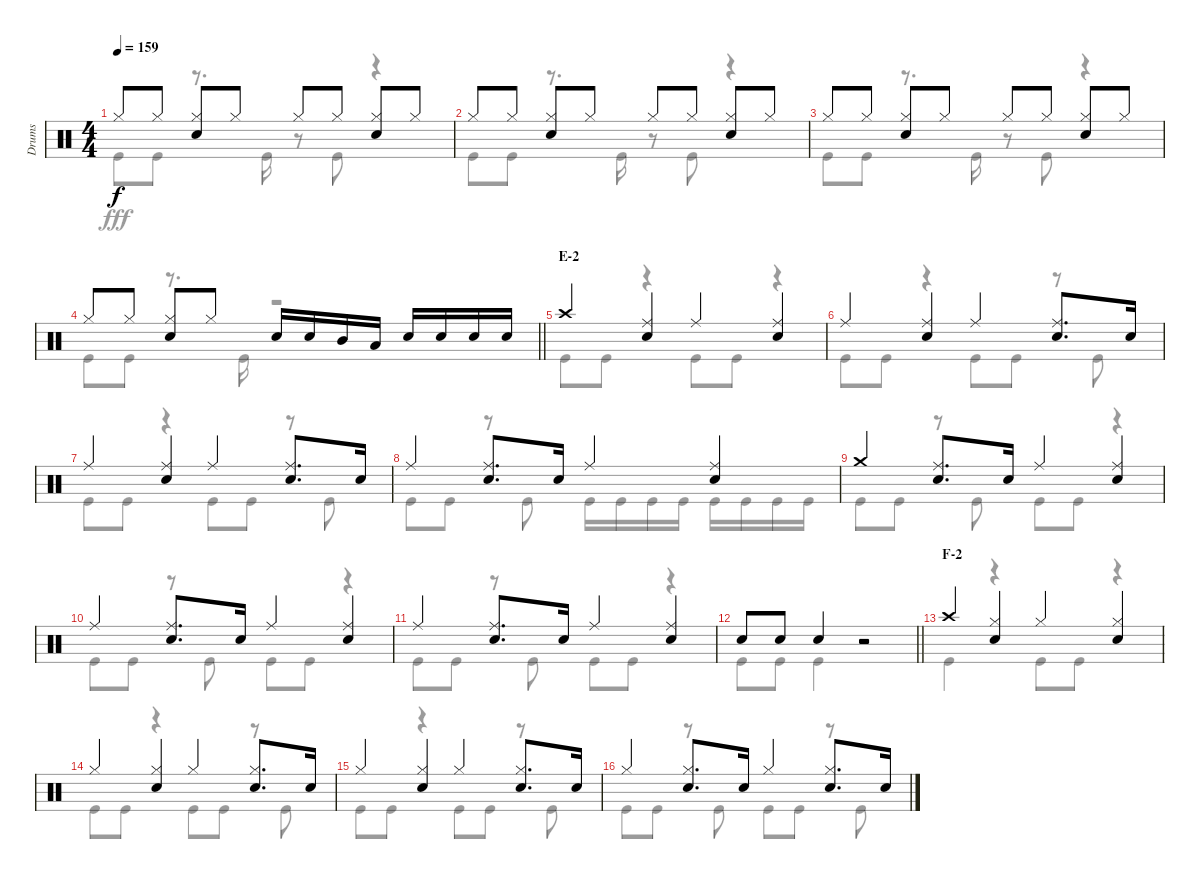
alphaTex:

\track ("Drums" "Drums") {instrument percussion}
\staff {score}
\articulation defaults
\voice
\ts (4 4)
\tempo 159
\clef neutral
\ks c "Hi-Hat (closed)".8{dy f} "Hi-Hat (closed)".8
("Hi-Hat (closed)" "Snare (hit) 2").8 "Hi-Hat (closed)".8 "Hi-Hat (closed)".8 "Hi-Hat (closed)".8 ("Hi-Hat (closed)" "Snare (hit) 2").8 "Hi-Hat (closed)".8 |
"Hi-Hat (closed)".8 "Hi-Hat (closed)".8 ("Hi-Hat (closed)" "Snare (hit) 2").8 "Hi-Hat (closed)".8 "Hi-Hat (closed)".8 "Hi-Hat (closed)".8 ("Hi-Hat (closed)" "Snare (hit) 2").8 "Hi-Hat (closed)".8 |
"Hi-Hat (closed)".8 "Hi-Hat (closed)".8 ("Hi-Hat (closed)" "Snare (hit) 2").8 "Hi-Hat (closed)".8 "Hi-Hat (closed)".8 "Hi-Hat (closed)".8 ("Hi-Hat (closed)" "Snare (hit) 2").8 "Hi-Hat (closed)".8 |
\barLineRight lightlight "Hi-Hat (closed)".8 "Hi-Hat (closed)".8
("Hi-Hat (closed)" "Snare (hit) 2").8 "Hi-Hat (closed)".8 "Snare (hit) 2".16 "Snare (hit) 2".16 "Mid Tom (hit)".16 "Low Tom (hit)".16 "Snare (hit) 2".16 "Snare (hit) 2".16 "Snare (hit) 2".16 "Snare (hit) 2".16 |
\section ("" "E-2")
"Crash high (hit)".4 ("Ride (middle)" "Snare (hit) 2").4 "Ride (middle)".4 ("Ride (middle)" "Snare (hit) 2").4 |
"Ride (middle)".4 ("Ride (middle)" "Snare (hit) 2").4 "Ride (middle)".4 ("Ride (middle)" "Snare (hit) 2").8{d} "Snare (hit) 2".16 |
"Ride (middle)".4 ("Ride (middle)" "Snare (hit) 2").4 "Ride (middle)".4 ("Ride (middle)" "Snare (hit) 2").8{d} "Snare (hit) 2".16 |
"Ride (middle)".4 ("Ride (middle)" "Snare (hit) 2").8{d} "Snare (hit) 2".16 "Ride (middle)".4 ("Ride (middle)" "Snare (hit) 2").4 |
"Crash medium (hit)".4 ("Ride (middle)" "Snare (hit) 2").8{d} "Snare (hit) 2".16 "Ride (middle)".4 ("Ride (middle)" "Snare (hit) 2").4 |
"Ride (middle)".4 ("Ride (middle)" "Snare (hit) 2").8{d} "Snare (hit) 2".16 "Ride (middle)".4 ("Ride (middle)" "Snare (hit) 2").4 |
"Ride (middle)".4 ("Ride (middle)" "Snare (hit) 2").8{d} "Snare (hit) 2".16 "Ride (middle)".4 ("Ride (middle)" "Snare (hit) 2").4 |
\barLineRight lightlight "Snare (hit) 2".8 "Snare (hit) 2".8 "Snare (hit) 2".4
r.2 |
\section ("" "F-2")
"Crash high (hit)".4 ("Hi-Hat (closed)" "Snare (hit) 2").4 "Hi-Hat (closed)".4 ("Hi-Hat (closed)" "Snare (hit) 2").4 |
"Hi-Hat (closed)".4 ("Hi-Hat (closed)" "Snare (hit) 2").4 "Hi-Hat (closed)".4 ("Hi-Hat (closed)" "Snare (hit) 2").8{d} "Snare (hit) 2".16 |
"Hi-Hat (closed)".4 ("Hi-Hat (closed)" "Snare (hit) 2").4 "Hi-Hat (closed)".4 ("Hi-Hat (closed)" "Snare (hit) 2").8{d} "Snare (hit) 2".16 |
"Hi-Hat (closed)".4 ("Hi-Hat (closed)" "Snare (hit) 2").8{d} "Snare (hit) 2".16 "Hi-Hat (closed)".4 ("Hi-Hat (closed)" "Snare (hit) 2").8{d} "Snare (hit) 2".16
\voice
\clef neutral
\ottava regular
\simile none
\ks c "Kick (hit)".8{dy fff} "Kick (hit)".8
r.8{d} "Kick (hit)".16 r.8 "Kick (hit)".8 r.4 |
"Kick (hit)".8 "Kick (hit)".8 r.8{d} "Kick (hit)".16 r.8 "Kick (hit)".8 r.4 |
"Kick (hit)".8 "Kick (hit)".8 r.8{d} "Kick (hit)".16 r.8 "Kick (hit)".8 r.4 |
\barLineRight lightlight "Kick (hit)".8 "Kick (hit)".8
r.8{d} "Kick (hit)".16 r.2 |
"Kick (hit)".8 "Kick (hit)".8 r.4 "Kick (hit)".8 "Kick (hit)".8 r.4 |
"Kick (hit)".8 "Kick (hit)".8 r.4 "Kick (hit)".8 "Kick (hit)".8 r.8 "Kick (hit)".8 |
"Kick (hit)".8 "Kick (hit)".8 r.4 "Kick (hit)".8 "Kick (hit)".8 r.8 "Kick (hit)".8 |
"Kick (hit)".8 "Kick (hit)".8 r.8 "Kick (hit)".8 "Kick (hit)".16 "Kick (hit)".16 "Kick (hit)".16 "Kick (hit)".16 "Kick (hit)".16 "Kick (hit)".16 "Kick (hit)".16 "Kick (hit)".16 |
"Kick (hit)".8 "Kick (hit)".8 r.8 "Kick (hit)".8 "Kick (hit)".8 "Kick (hit)".8 r.4 |
"Kick (hit)".8 "Kick (hit)".8 r.8 "Kick (hit)".8 "Kick (hit)".8 "Kick (hit)".8 r.4 |
"Kick (hit)".8 "Kick (hit)".8 r.8 "Kick (hit)".8 "Kick (hit)".8 "Kick (hit)".8 r.4 |
\barLineRight lightlight "Kick (hit)".8 "Kick (hit)".8 "Kick (hit)".4
r.2 |
"Kick (hit)".4 r.4 "Kick (hit)".8 "Kick (hit)".8 r.4 |
"Kick (hit)".8 "Kick (hit)".8 r.4 "Kick (hit)".8 "Kick (hit)".8 r.8 "Kick (hit)".8 |
"Kick (hit)".8 "Kick (hit)".8 r.4 "Kick (hit)".8 "Kick (hit)".8 r.8 "Kick (hit)".8 |
"Kick (hit)".8 "Kick (hit)".8 r.8 "Kick (hit)".8 "Kick (hit)".8 "Kick (hit)".8 r.8 "Kick (hit)".8
